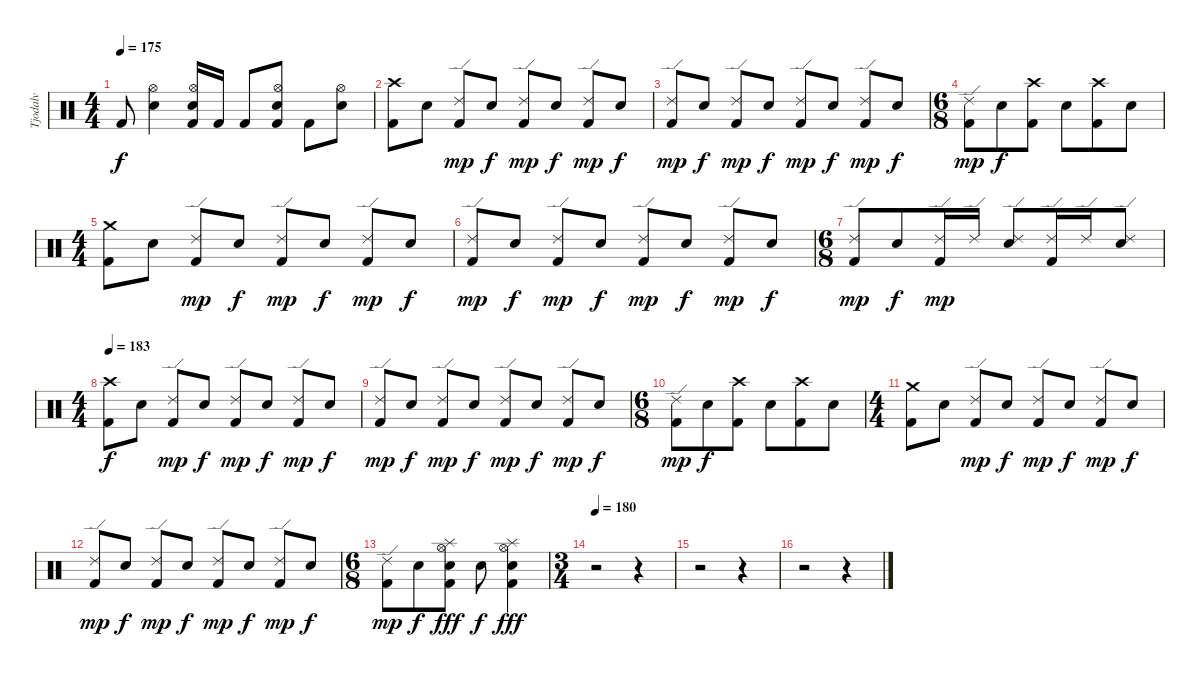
\track ("Tjodalv" "Tjodalv") {instrument percussion}
\staff {score}
\articulation defaults
\ts (4 4)
\tempo 175
\clef neutral
\ks c "Kick (hit) 2".8{dy f}
("Hi-Hat (open)" "Electric Snare (hit)").4 ("Hi-Hat (open)" "Electric Snare (hit)" "Kick (hit) 2").16 "Kick (hit) 2".16 "Kick (hit) 2".8 ("Hi-Hat (open)" "Electric Snare (hit)" "Kick (hit) 2").8 "Kick (hit) 2".8 ("Hi-Hat (open)" "Electric Snare (hit)").8 |
("Crash high (hit)" "Kick (hit) 2").8 "Electric Snare (hit)".8 ("Ride (edge) 2" "Kick (hit) 2").8{dy mp} "Electric Snare (hit)".8{dy f} ("Ride (edge) 2" "Kick (hit) 2").8{dy mp} "Electric Snare (hit)".8{dy f} ("Ride (edge) 2" "Kick (hit) 2").8{dy mp} "Electric Snare (hit)".8{dy f} |
("Ride (edge) 2" "Kick (hit) 2").8{dy mp} "Electric Snare (hit)".8{dy f} ("Ride (edge) 2" "Kick (hit) 2").8{dy mp} "Electric Snare (hit)".8{dy f} ("Ride (edge) 2" "Kick (hit) 2").8{dy mp} "Electric Snare (hit)".8{dy f} ("Ride (edge) 2" "Kick (hit) 2").8{dy mp} "Electric Snare (hit)".8{dy f} |
\ts (6 8)
("Ride (edge) 2" "Kick (hit) 2").8{dy mp} "Electric Snare (hit)".8{dy f} ("Crash high (hit)" "Kick (hit) 2").8 "Electric Snare (hit)".8 ("Crash high (hit)" "Kick (hit) 2").8 "Electric Snare (hit)".8 |
\ts (4 4)
("Crash medium (hit)" "Kick (hit) 2").8 "Electric Snare (hit)".8 ("Ride (edge) 2" "Kick (hit) 2").8{dy mp} "Electric Snare (hit)".8{dy f} ("Ride (edge) 2" "Kick (hit) 2").8{dy mp} "Electric Snare (hit)".8{dy f} ("Ride (edge) 2" "Kick (hit) 2").8{dy mp} "Electric Snare (hit)".8{dy f} |
("Ride (edge) 2" "Kick (hit) 2").8{dy mp} "Electric Snare (hit)".8{dy f} ("Ride (edge) 2" "Kick (hit) 2").8{dy mp} "Electric Snare (hit)".8{dy f} ("Ride (edge) 2" "Kick (hit) 2").8{dy mp} "Electric Snare (hit)".8{dy f} ("Ride (edge) 2" "Kick (hit) 2").8{dy mp} "Electric Snare (hit)".8{dy f} |
\ts (6 8)
("Ride (edge) 2" "Kick (hit) 2").8{dy mp} "Electric Snare (hit)".8{dy f} ("Ride (edge) 2" "Kick (hit) 2").16{dy mp} "Ride (edge) 2".16 ("Ride (edge) 2" "Electric Snare (hit)").8 ("Ride (edge) 2" "Kick (hit) 2").16 "Ride (edge) 2".16 ("Ride (edge) 2" "Electric Snare (hit)").8 |
\ts (4 4)
\tempo 183
("Crash high (hit)" "Kick (hit) 2").8{dy f} "Electric Snare (hit)".8 ("Ride (edge) 2" "Kick (hit) 2").8{dy mp} "Electric Snare (hit)".8{dy f} ("Ride (edge) 2" "Kick (hit) 2").8{dy mp} "Electric Snare (hit)".8{dy f} ("Ride (edge) 2" "Kick (hit) 2").8{dy mp} "Electric Snare (hit)".8{dy f} |
("Ride (edge) 2" "Kick (hit) 2").8{dy mp} "Electric Snare (hit)".8{dy f} ("Ride (edge) 2" "Kick (hit) 2").8{dy mp} "Electric Snare (hit)".8{dy f} ("Ride (edge) 2" "Kick (hit) 2").8{dy mp} "Electric Snare (hit)".8{dy f} ("Ride (edge) 2" "Kick (hit) 2").8{dy mp} "Electric Snare (hit)".8{dy f} |
\ts (6 8)
("Ride (edge) 2" "Kick (hit) 2").8{dy mp} "Electric Snare (hit)".8{dy f} ("Crash high (hit)" "Kick (hit) 2").8 "Electric Snare (hit)".8 ("Crash high (hit)" "Kick (hit) 2").8 "Electric Snare (hit)".8 |
\ts (4 4)
("Crash medium (hit)" "Kick (hit) 2").8 "Electric Snare (hit)".8 ("Ride (edge) 2" "Kick (hit) 2").8{dy mp} "Electric Snare (hit)".8{dy f} ("Ride (edge) 2" "Kick (hit) 2").8{dy mp} "Electric Snare (hit)".8{dy f} ("Ride (edge) 2" "Kick (hit) 2").8{dy mp} "Electric Snare (hit)".8{dy f} |
("Ride (edge) 2" "Kick (hit) 2").8{dy mp} "Electric Snare (hit)".8{dy f} ("Ride (edge) 2" "Kick (hit) 2").8{dy mp} "Electric Snare (hit)".8{dy f} ("Ride (edge) 2" "Kick (hit) 2").8{dy mp} "Electric Snare (hit)".8{dy f} ("Ride (edge) 2" "Kick (hit) 2").8{dy mp} "Electric Snare (hit)".8{dy f} |
\ts (6 8)
("Ride (edge) 2" "Kick (hit) 2").8{dy mp} "Electric Snare (hit)".8{dy f} ("Splash (hit)" "Hi-Hat (open)" "Electric Snare (hit)" "Kick (hit) 2").8{dy fff} "Electric Snare (hit)".8{dy f} ("Splash (hit)" "Hi-Hat (open)" "Electric Snare (hit)" "Kick (hit) 2").4{dy fff} |
\ts (3 4)
\tempo 180
r.2 r.4 |
r.2 r.4 |
r.2 r.4
